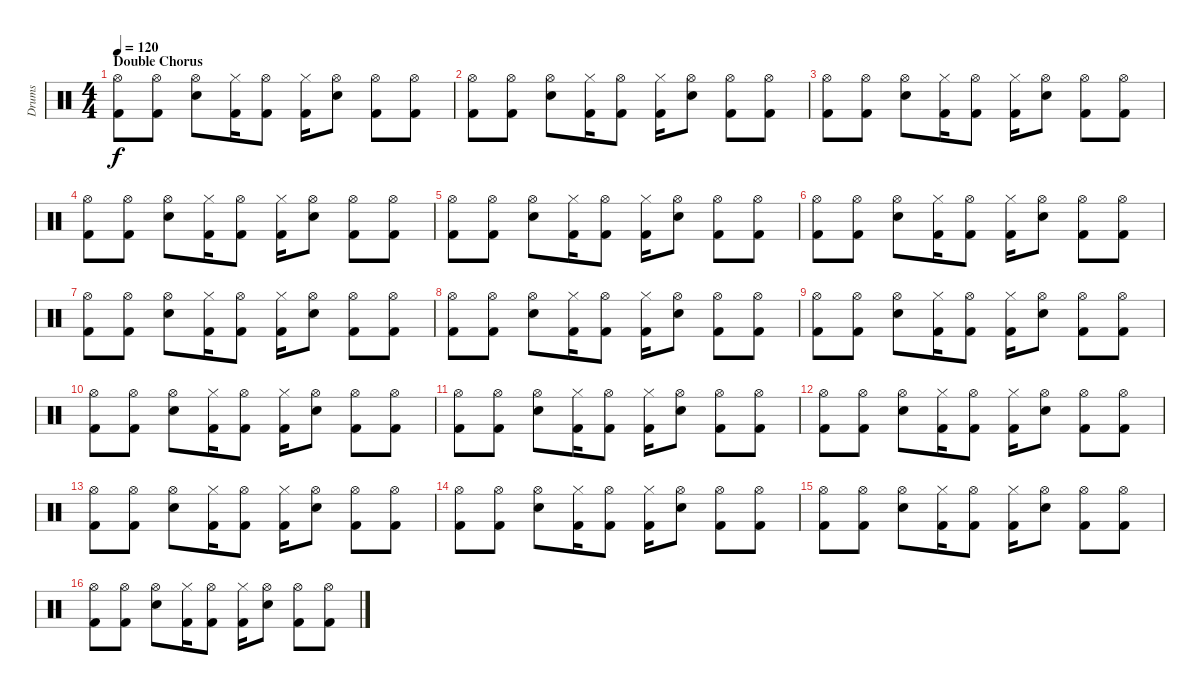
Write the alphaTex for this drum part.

\track ("Drums" "Drums") {instrument percussion}
\staff {score}
\articulation defaults
\ts (4 4)
\section ("" "Double Chorus")
\tempo 120
\clef neutral
\ks c
("Hi-Hat (open)" "Kick (hit) 2").8{dy f} ("Hi-Hat (open)" "Kick (hit) 2").8 ("Hi-Hat (open)" "Electric Snare (hit)").8 ("Hi-Hat (closed)" "Kick (hit) 2").16 ("Hi-Hat (open)" "Kick (hit) 2").8 ("Hi-Hat (closed)" "Kick (hit) 2").16 ("Hi-Hat (open)" "Electric Snare (hit)").8 ("Hi-Hat (open)" "Kick (hit) 2").8 ("Hi-Hat (open)" "Kick (hit) 2").8 |
("Hi-Hat (open)" "Kick (hit) 2").8 ("Hi-Hat (open)" "Kick (hit) 2").8 ("Hi-Hat (open)" "Electric Snare (hit)").8 ("Hi-Hat (closed)" "Kick (hit) 2").16 ("Hi-Hat (open)" "Kick (hit) 2").8 ("Hi-Hat (closed)" "Kick (hit) 2").16 ("Hi-Hat (open)" "Electric Snare (hit)").8 ("Hi-Hat (open)" "Kick (hit) 2").8 ("Hi-Hat (open)" "Kick (hit) 2").8 |
("Hi-Hat (open)" "Kick (hit) 2").8 ("Hi-Hat (open)" "Kick (hit) 2").8 ("Hi-Hat (open)" "Electric Snare (hit)").8 ("Hi-Hat (closed)" "Kick (hit) 2").16 ("Hi-Hat (open)" "Kick (hit) 2").8 ("Hi-Hat (closed)" "Kick (hit) 2").16 ("Hi-Hat (open)" "Electric Snare (hit)").8 ("Hi-Hat (open)" "Kick (hit) 2").8 ("Hi-Hat (open)" "Kick (hit) 2").8 |
("Hi-Hat (open)" "Kick (hit) 2").8 ("Hi-Hat (open)" "Kick (hit) 2").8 ("Hi-Hat (open)" "Electric Snare (hit)").8 ("Hi-Hat (closed)" "Kick (hit) 2").16 ("Hi-Hat (open)" "Kick (hit) 2").8 ("Hi-Hat (closed)" "Kick (hit) 2").16 ("Hi-Hat (open)" "Electric Snare (hit)").8 ("Hi-Hat (open)" "Kick (hit) 2").8 ("Hi-Hat (open)" "Kick (hit) 2").8 |
("Hi-Hat (open)" "Kick (hit) 2").8 ("Hi-Hat (open)" "Kick (hit) 2").8 ("Hi-Hat (open)" "Electric Snare (hit)").8 ("Hi-Hat (closed)" "Kick (hit) 2").16 ("Hi-Hat (open)" "Kick (hit) 2").8 ("Hi-Hat (closed)" "Kick (hit) 2").16 ("Hi-Hat (open)" "Electric Snare (hit)").8 ("Hi-Hat (open)" "Kick (hit) 2").8 ("Hi-Hat (open)" "Kick (hit) 2").8 |
("Hi-Hat (open)" "Kick (hit) 2").8 ("Hi-Hat (open)" "Kick (hit) 2").8 ("Hi-Hat (open)" "Electric Snare (hit)").8 ("Hi-Hat (closed)" "Kick (hit) 2").16 ("Hi-Hat (open)" "Kick (hit) 2").8 ("Hi-Hat (closed)" "Kick (hit) 2").16 ("Hi-Hat (open)" "Electric Snare (hit)").8 ("Hi-Hat (open)" "Kick (hit) 2").8 ("Hi-Hat (open)" "Kick (hit) 2").8 |
("Hi-Hat (open)" "Kick (hit) 2").8 ("Hi-Hat (open)" "Kick (hit) 2").8 ("Hi-Hat (open)" "Electric Snare (hit)").8 ("Hi-Hat (closed)" "Kick (hit) 2").16 ("Hi-Hat (open)" "Kick (hit) 2").8 ("Hi-Hat (closed)" "Kick (hit) 2").16 ("Hi-Hat (open)" "Electric Snare (hit)").8 ("Hi-Hat (open)" "Kick (hit) 2").8 ("Hi-Hat (open)" "Kick (hit) 2").8 |
("Hi-Hat (open)" "Kick (hit) 2").8 ("Hi-Hat (open)" "Kick (hit) 2").8 ("Hi-Hat (open)" "Electric Snare (hit)").8 ("Hi-Hat (closed)" "Kick (hit) 2").16 ("Hi-Hat (open)" "Kick (hit) 2").8 ("Hi-Hat (closed)" "Kick (hit) 2").16 ("Hi-Hat (open)" "Electric Snare (hit)").8 ("Hi-Hat (open)" "Kick (hit) 2").8 ("Hi-Hat (open)" "Kick (hit) 2").8 |
("Hi-Hat (open)" "Kick (hit) 2").8 ("Hi-Hat (open)" "Kick (hit) 2").8 ("Hi-Hat (open)" "Electric Snare (hit)").8 ("Hi-Hat (closed)" "Kick (hit) 2").16 ("Hi-Hat (open)" "Kick (hit) 2").8 ("Hi-Hat (closed)" "Kick (hit) 2").16 ("Hi-Hat (open)" "Electric Snare (hit)").8 ("Hi-Hat (open)" "Kick (hit) 2").8 ("Hi-Hat (open)" "Kick (hit) 2").8 |
("Hi-Hat (open)" "Kick (hit) 2").8 ("Hi-Hat (open)" "Kick (hit) 2").8 ("Hi-Hat (open)" "Electric Snare (hit)").8 ("Hi-Hat (closed)" "Kick (hit) 2").16 ("Hi-Hat (open)" "Kick (hit) 2").8 ("Hi-Hat (closed)" "Kick (hit) 2").16 ("Hi-Hat (open)" "Electric Snare (hit)").8 ("Hi-Hat (open)" "Kick (hit) 2").8 ("Hi-Hat (open)" "Kick (hit) 2").8 |
("Hi-Hat (open)" "Kick (hit) 2").8 ("Hi-Hat (open)" "Kick (hit) 2").8 ("Hi-Hat (open)" "Electric Snare (hit)").8 ("Hi-Hat (closed)" "Kick (hit) 2").16 ("Hi-Hat (open)" "Kick (hit) 2").8 ("Hi-Hat (closed)" "Kick (hit) 2").16 ("Hi-Hat (open)" "Electric Snare (hit)").8 ("Hi-Hat (open)" "Kick (hit) 2").8 ("Hi-Hat (open)" "Kick (hit) 2").8 |
("Hi-Hat (open)" "Kick (hit) 2").8 ("Hi-Hat (open)" "Kick (hit) 2").8 ("Hi-Hat (open)" "Electric Snare (hit)").8 ("Hi-Hat (closed)" "Kick (hit) 2").16 ("Hi-Hat (open)" "Kick (hit) 2").8 ("Hi-Hat (closed)" "Kick (hit) 2").16 ("Hi-Hat (open)" "Electric Snare (hit)").8 ("Hi-Hat (open)" "Kick (hit) 2").8 ("Hi-Hat (open)" "Kick (hit) 2").8 |
("Hi-Hat (open)" "Kick (hit) 2").8 ("Hi-Hat (open)" "Kick (hit) 2").8 ("Hi-Hat (open)" "Electric Snare (hit)").8 ("Hi-Hat (closed)" "Kick (hit) 2").16 ("Hi-Hat (open)" "Kick (hit) 2").8 ("Hi-Hat (closed)" "Kick (hit) 2").16 ("Hi-Hat (open)" "Electric Snare (hit)").8 ("Hi-Hat (open)" "Kick (hit) 2").8 ("Hi-Hat (open)" "Kick (hit) 2").8 |
("Hi-Hat (open)" "Kick (hit) 2").8 ("Hi-Hat (open)" "Kick (hit) 2").8 ("Hi-Hat (open)" "Electric Snare (hit)").8 ("Hi-Hat (closed)" "Kick (hit) 2").16 ("Hi-Hat (open)" "Kick (hit) 2").8 ("Hi-Hat (closed)" "Kick (hit) 2").16 ("Hi-Hat (open)" "Electric Snare (hit)").8 ("Hi-Hat (open)" "Kick (hit) 2").8 ("Hi-Hat (open)" "Kick (hit) 2").8 |
("Hi-Hat (open)" "Kick (hit) 2").8 ("Hi-Hat (open)" "Kick (hit) 2").8 ("Hi-Hat (open)" "Electric Snare (hit)").8 ("Hi-Hat (closed)" "Kick (hit) 2").16 ("Hi-Hat (open)" "Kick (hit) 2").8 ("Hi-Hat (closed)" "Kick (hit) 2").16 ("Hi-Hat (open)" "Electric Snare (hit)").8 ("Hi-Hat (open)" "Kick (hit) 2").8 ("Hi-Hat (open)" "Kick (hit) 2").8 |
("Hi-Hat (open)" "Kick (hit) 2").8 ("Hi-Hat (open)" "Kick (hit) 2").8 ("Hi-Hat (open)" "Electric Snare (hit)").8 ("Hi-Hat (closed)" "Kick (hit) 2").16 ("Hi-Hat (open)" "Kick (hit) 2").8 ("Hi-Hat (closed)" "Kick (hit) 2").16 ("Hi-Hat (open)" "Electric Snare (hit)").8 ("Hi-Hat (open)" "Kick (hit) 2").8 ("Hi-Hat (open)" "Kick (hit) 2").8
